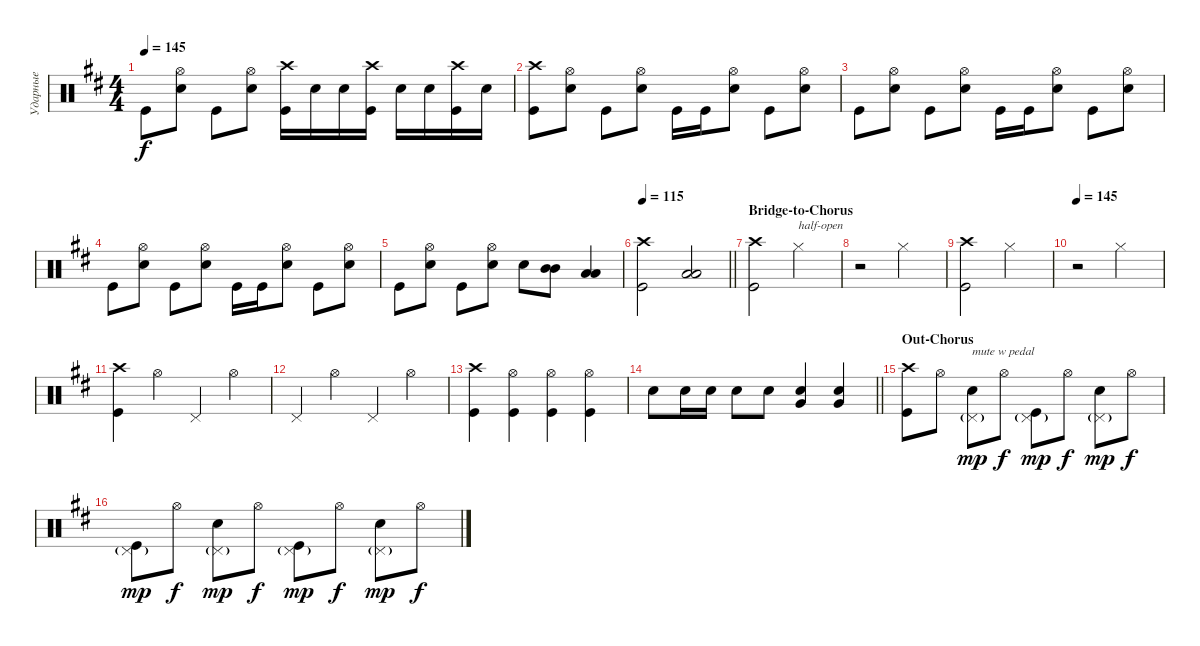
\track ("Ударные" "Ударные") {instrument percussion}
\staff {score}
\articulation defaults
\ts (4 4)
\tempo 145
\clef neutral
\ks bminor "Kick (hit)".8{dy f}
("Snare (hit) 2" "Hi-Hat (open)").8 "Kick (hit)".8 ("Snare (hit) 2" "Hi-Hat (open)").8 ("Kick (hit)" "Crash high (hit)").16 "Snare (hit) 2".16 "Snare (hit) 2".16 ("Kick (hit)" "Crash high (hit)").16 "Snare (hit) 2".16 "Snare (hit) 2".16 ("Kick (hit)" "Crash high (hit)").16 "Snare (hit) 2".16 |
("Kick (hit)" "Crash high (hit)").8 ("Snare (hit) 2" "Hi-Hat (open)").8 "Kick (hit)".8 ("Snare (hit) 2" "Hi-Hat (open)").8 "Kick (hit)".16 "Kick (hit)".16 ("Snare (hit) 2" "Hi-Hat (open)").8 "Kick (hit)".8 ("Snare (hit) 2" "Hi-Hat (open)").8 |
"Kick (hit)".8 ("Snare (hit) 2" "Hi-Hat (open)").8 "Kick (hit)".8 ("Snare (hit) 2" "Hi-Hat (open)").8 "Kick (hit)".16 "Kick (hit)".16 ("Snare (hit) 2" "Hi-Hat (open)").8 "Kick (hit)".8 ("Snare (hit) 2" "Hi-Hat (open)").8 |
"Kick (hit)".8 ("Snare (hit) 2" "Hi-Hat (open)").8 "Kick (hit)".8 ("Snare (hit) 2" "Hi-Hat (open)").8 "Kick (hit)".16 "Kick (hit)".16 ("Snare (hit) 2" "Hi-Hat (open)").8 "Kick (hit)".8 ("Snare (hit) 2" "Hi-Hat (open)").8 |
"Kick (hit)".8 ("Snare (hit) 2" "Hi-Hat (open)").8 "Kick (hit)".8 ("Snare (hit) 2" "Hi-Hat (open)").8 "Snare (hit) 2".8 ("Mid Tom (hit)" "Mid Tom (hit)").8{bd 240} ("Low Tom (hit)" "Low Tom (hit)").4{bd 240} |
\tempo 115
\barLineRight lightlight
("Kick (hit)" "Crash high (hit)").2 ("Low Tom (hit)" "Low Tom (hit)").2{bd 240} |
\section ("" "Bridge-to-Chorus")
("Kick (hit)" "Crash high (hit)").2 "Hi-Hat (closed)".2{txt "half-open"} |
r.2 "Hi-Hat (closed)".2 |
("Kick (hit)" "Crash high (hit)").2 "Hi-Hat (closed)".2 |
\tempo 145
r.2 "Hi-Hat (closed)".2 |
("Kick (hit)" "Crash high (hit)").4 "Hi-Hat (open)".4 "Pedal Hi-Hat (hit)".4 "Hi-Hat (open)".4 |
"Pedal Hi-Hat (hit)".4 "Hi-Hat (open)".4 "Pedal Hi-Hat (hit)".4 "Hi-Hat (open)".4 |
("Kick (hit)" "Crash high (hit)").4 ("Kick (hit)" "Hi-Hat (open)").4 ("Kick (hit)" "Hi-Hat (open)").4 ("Kick (hit)" "Hi-Hat (open)").4 |
\barLineRight lightlight "Snare (hit) 2".8 "Snare (hit) 2".16 "Snare (hit) 2".16 "Snare (hit) 2".8 "Snare (hit) 2".8
("Snare (hit) 2" "Very Low Tom (hit)").4{bd 240} ("Snare (hit) 2" "Very Low Tom (hit)").4{bd 240} |
\section ("" "Out-Chorus")
("Kick (hit)" "Crash high (hit)").8 "Hi-Hat (open)".8 ("Snare (hit) 2" "Pedal Hi-Hat (hit)"{g}).8{txt "mute w pedal" dy mp} "Hi-Hat (open)".8{dy f} ("Pedal Hi-Hat (hit)"{g} "Kick (hit)").8{dy mp} "Hi-Hat (open)".8{dy f} ("Snare (hit) 2" "Pedal Hi-Hat (hit)"{g}).8{dy mp} "Hi-Hat (open)".8{dy f} |
("Pedal Hi-Hat (hit)"{g} "Kick (hit)").8{dy mp} "Hi-Hat (open)".8{dy f} ("Snare (hit) 2" "Pedal Hi-Hat (hit)"{g}).8{dy mp} "Hi-Hat (open)".8{dy f} ("Pedal Hi-Hat (hit)"{g} "Kick (hit)").8{dy mp} "Hi-Hat (open)".8{dy f} ("Snare (hit) 2" "Pedal Hi-Hat (hit)"{g}).8{dy mp} "Hi-Hat (open)".8{dy f}
